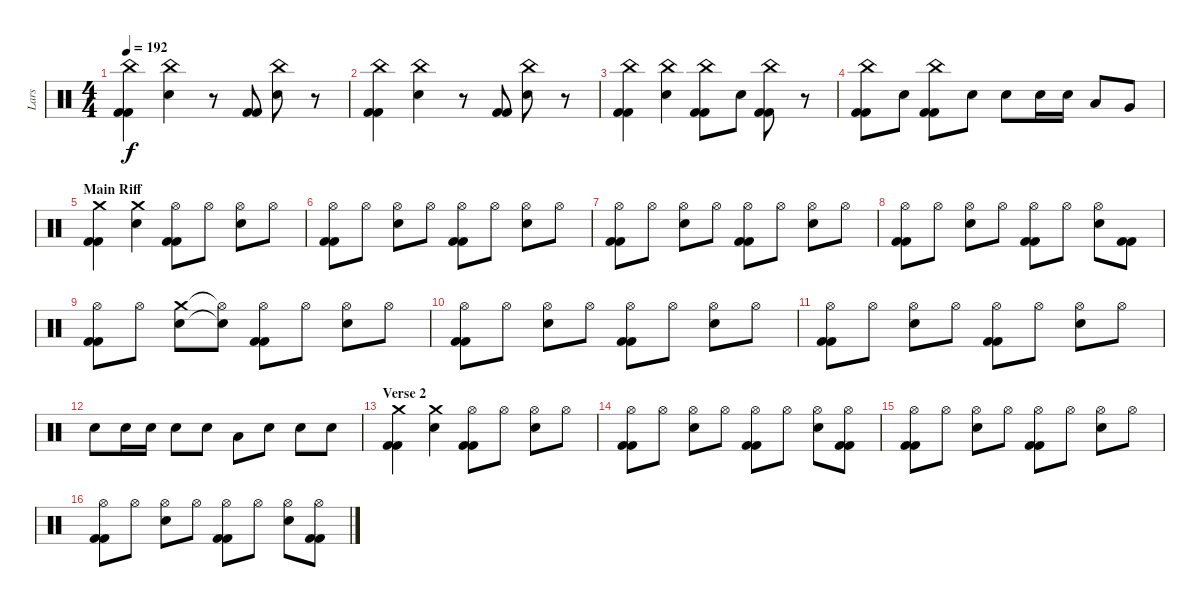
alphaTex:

\track ("Lars" "Lars") {instrument percussion}
\staff {score}
\articulation defaults
\ts (4 4)
\tempo 192
\clef neutral
\ks c
("China (hit)" "Kick (hit) 2" "Kick (hit) 2").4{dy f} ("Electric Snare (hit)" "China (hit)").4 r.8 ("Kick (hit) 2" "Kick (hit) 2").8 ("Electric Snare (hit)" "China (hit)").8 r.8 |
("China (hit)" "Kick (hit) 2" "Kick (hit) 2").4 ("Electric Snare (hit)" "China (hit)").4 r.8 ("Kick (hit) 2" "Kick (hit) 2").8 ("Electric Snare (hit)" "China (hit)").8 r.8 |
("China (hit)" "Kick (hit) 2" "Kick (hit) 2").4 ("Electric Snare (hit)" "China (hit)").4 ("Kick (hit) 2" "Kick (hit) 2" "China (hit)").8 "Electric Snare (hit)".8 ("China (hit)" "Kick (hit) 2" "Kick (hit) 2").8 r.8 |
("China (hit)" "Kick (hit) 2" "Kick (hit) 2").8 "Electric Snare (hit)".8 ("Kick (hit) 2" "China (hit)" "Kick (hit) 2").8 "Electric Snare (hit)".8 "Electric Snare (hit)".8 "Electric Snare (hit)".16 "Electric Snare (hit)".16 "Low Tom (hit)".8 "Very Low Tom (hit)".8 |
\section ("" "Main Riff ")
("Crash medium (hit)" "Kick (hit) 2" "Kick (hit) 2").4 ("Electric Snare (hit)" "Crash medium (hit)").4 ("Hi-Hat (open)" "Kick (hit) 2" "Kick (hit) 2").8 "Hi-Hat (open)".8 ("Electric Snare (hit)" "Hi-Hat (open)").8 "Hi-Hat (open)".8 |
("Hi-Hat (open)" "Kick (hit) 2" "Kick (hit) 2").8 "Hi-Hat (open)".8 ("Electric Snare (hit)" "Hi-Hat (open)").8 "Hi-Hat (open)".8 ("Hi-Hat (open)" "Kick (hit) 2" "Kick (hit) 2").8 "Hi-Hat (open)".8 ("Electric Snare (hit)" "Hi-Hat (open)").8 "Hi-Hat (open)".8 |
("Hi-Hat (open)" "Kick (hit) 2" "Kick (hit) 2").8 "Hi-Hat (open)".8 ("Electric Snare (hit)" "Hi-Hat (open)").8 "Hi-Hat (open)".8 ("Hi-Hat (open)" "Kick (hit) 2" "Kick (hit) 2").8 "Hi-Hat (open)".8 ("Electric Snare (hit)" "Hi-Hat (open)").8 "Hi-Hat (open)".8 |
("Hi-Hat (open)" "Kick (hit) 2" "Kick (hit) 2").8 "Hi-Hat (open)".8 ("Electric Snare (hit)" "Hi-Hat (open)").8 "Hi-Hat (open)".8 ("Hi-Hat (open)" "Kick (hit) 2" "Kick (hit) 2").8 "Hi-Hat (open)".8 ("Electric Snare (hit)" "Hi-Hat (open)").8 ("Kick (hit) 2" "Kick (hit) 2").8 |
("Hi-Hat (open)" "Kick (hit) 2" "Kick (hit) 2").8 "Hi-Hat (open)".8 ("Electric Snare (hit)" "Crash medium (hit)").8 ("Snare (hit)"{t} "Hi-Hat (open)"{t}).8 ("Hi-Hat (open)" "Kick (hit) 2" "Kick (hit) 2").8 "Hi-Hat (open)".8 ("Electric Snare (hit)" "Hi-Hat (open)").8 "Hi-Hat (open)".8 |
("Hi-Hat (open)" "Kick (hit) 2" "Kick (hit) 2").8 "Hi-Hat (open)".8 ("Electric Snare (hit)" "Hi-Hat (open)").8 "Hi-Hat (open)".8 ("Hi-Hat (open)" "Kick (hit) 2" "Kick (hit) 2").8 "Hi-Hat (open)".8 ("Electric Snare (hit)" "Hi-Hat (open)").8 "Hi-Hat (open)".8 |
("Hi-Hat (open)" "Kick (hit) 2" "Kick (hit) 2").8 "Hi-Hat (open)".8 ("Electric Snare (hit)" "Hi-Hat (open)").8 "Hi-Hat (open)".8 ("Hi-Hat (open)" "Kick (hit) 2" "Kick (hit) 2").8 "Hi-Hat (open)".8 ("Electric Snare (hit)" "Hi-Hat (open)").8 "Hi-Hat (open)".8 |
"Electric Snare (hit)".8 "Electric Snare (hit)".16 "Electric Snare (hit)".16 "Electric Snare (hit)".8 "Electric Snare (hit)".8 "Low Tom (hit)".8 "Electric Snare (hit)".8 "Electric Snare (hit)".8 "Electric Snare (hit)".8 |
\section ("" "Verse 2")
("Crash medium (hit)" "Kick (hit) 2" "Kick (hit) 2").4 ("Electric Snare (hit)" "Crash medium (hit)").4 ("Hi-Hat (open)" "Kick (hit) 2" "Kick (hit) 2").8 "Hi-Hat (open)".8 ("Electric Snare (hit)" "Hi-Hat (open)").8 "Hi-Hat (open)".8 |
("Hi-Hat (open)" "Kick (hit) 2" "Kick (hit) 2").8 "Hi-Hat (open)".8 ("Electric Snare (hit)" "Hi-Hat (open)").8 "Hi-Hat (open)".8 ("Hi-Hat (open)" "Kick (hit) 2" "Kick (hit) 2").8 "Hi-Hat (open)".8 ("Electric Snare (hit)" "Hi-Hat (open)").8 ("Hi-Hat (open)" "Kick (hit) 2" "Kick (hit) 2").8 |
("Hi-Hat (open)" "Kick (hit) 2" "Kick (hit) 2").8 "Hi-Hat (open)".8 ("Electric Snare (hit)" "Hi-Hat (open)").8 "Hi-Hat (open)".8 ("Hi-Hat (open)" "Kick (hit) 2" "Kick (hit) 2").8 "Hi-Hat (open)".8 ("Electric Snare (hit)" "Hi-Hat (open)").8 "Hi-Hat (open)".8 |
("Hi-Hat (open)" "Kick (hit) 2" "Kick (hit) 2").8 "Hi-Hat (open)".8 ("Electric Snare (hit)" "Hi-Hat (open)").8 "Hi-Hat (open)".8 ("Hi-Hat (open)" "Kick (hit) 2" "Kick (hit) 2").8 "Hi-Hat (open)".8 ("Electric Snare (hit)" "Hi-Hat (open)").8 ("Hi-Hat (open)" "Kick (hit) 2" "Kick (hit) 2").8
